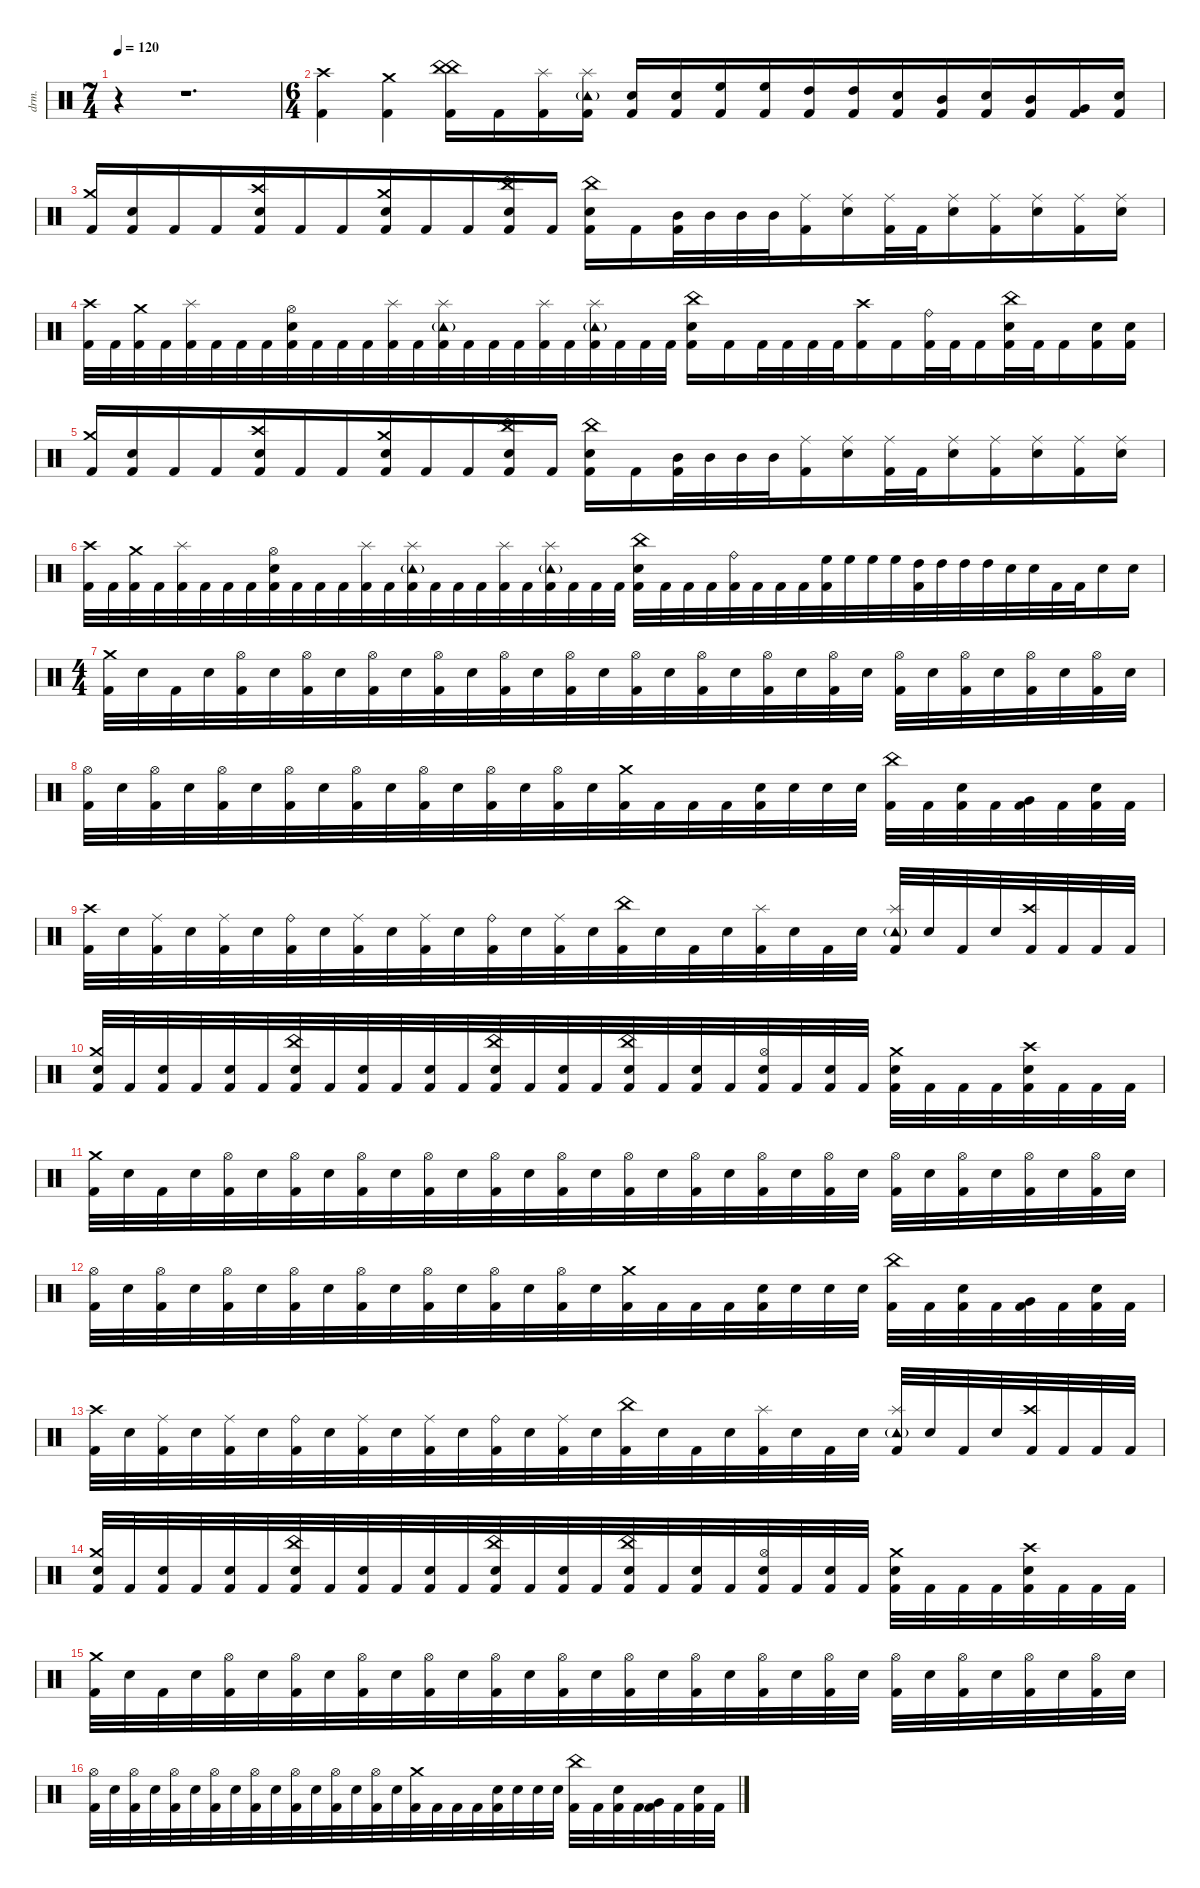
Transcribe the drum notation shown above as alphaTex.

\defaultSystemsLayout 4
\hideDynamics
\bracketExtendMode nobrackets
\otherSystemsTrackNameOrientation horizontal
\track ("Percussion" "drm.") {instrument percussion}
\staff {score}
\articulation defaults
\ts (7 4)
\beaming (8 2 2 2 8)
\tempo 120
\clef neutral
\ks c
r.4{dy fff beam Down} r.1{d beam Down} |
\ts (6 4)
\beaming (8 6 6)
("Kick (hit) 2" "Crash high (hit)").4{beam Down} ("Kick (hit) 2" "Crash medium (hit)").4{beam Down} ("Kick (hit) 2" "China (hit)" "China (hit)").16{beam Down} "Kick (hit) 2".16{beam Down} ("Kick (hit) 2" "Splash (hit)").16{beam Down} ("Kick (hit) 2" "Tambourine (hit)"{g} "Splash (hit)").16{beam Down} ("Kick (hit) 2" "Snare (hit) 2").16{beam Up} ("Kick (hit) 2" "Snare (hit) 2").16{beam Up} ("Kick (hit) 2" "High Floor Tom (hit)").16{beam Up} ("Kick (hit) 2" "High Floor Tom (hit)").16{beam Up} ("Kick (hit) 2" "High Tom (hit)").16{beam Up} ("Kick (hit) 2" "High Tom (hit)").16{beam Up} ("Kick (hit) 2" "Snare (hit) 2").16{beam Up} ("Kick (hit) 2" "Mid Tom (hit)").16{beam Up} ("Kick (hit) 2" "Snare (hit) 2").16{beam Up} ("Kick (hit) 2" "Mid Tom (hit)").16{beam Up} ("Kick (hit) 2" "Very Low Tom (hit)").16{beam Up} ("Kick (hit) 2" "Snare (hit) 2").16{beam Up} |
("Kick (hit) 2" "Crash medium (hit)").16{beam Up} ("Kick (hit) 2" "Snare (hit) 2").16{beam Up} "Kick (hit) 2".16{beam Up} "Kick (hit) 2".16{beam Up} ("Kick (hit) 2" "Snare (hit) 2" "Crash high (hit)").16{beam Up} "Kick (hit) 2".16{beam Up} "Kick (hit) 2".16{beam Up} ("Kick (hit) 2" "Snare (hit) 2" "Crash medium (hit)").16{beam Up} "Kick (hit) 2".16{beam Up} "Kick (hit) 2".16{beam Up} ("Kick (hit) 2" "Snare (hit) 2" "China (hit)").16{beam Up} "Kick (hit) 2".16{beam Up} ("Kick (hit) 2" "Snare (hit) 2" "China (hit)").16{beam Down} "Kick (hit) 2".16{beam Down} ("Kick (hit) 2" "Mid Tom (hit)").32{beam Down} "Mid Tom (hit)".32{beam Down} "Mid Tom (hit)".32{beam Down} "Mid Tom (hit)".32{beam Down} ("Kick (hit) 2" "Ride (middle)").16{beam Down} ("Snare (hit) 2" "Ride (middle)").16{beam Down} ("Kick (hit) 2" "Ride (middle)").32{beam Down} "Kick (hit) 2".32{beam Down} ("Snare (hit) 2" "Ride (middle)").16{beam Down} ("Kick (hit) 2" "Ride (middle)").16{beam Down} ("Snare (hit) 2" "Ride (middle)").16{beam Down} ("Kick (hit) 2" "Ride (middle)").16{beam Down} ("Snare (hit) 2" "Ride (middle)").16{beam Down} |
("Kick (hit) 2" "Crash high (hit)").32{beam Down} "Kick (hit) 2".32{beam Down} ("Kick (hit) 2" "Crash medium (hit)").32{beam Down} "Kick (hit) 2".32{beam Down} ("Kick (hit) 2" "Splash (hit)").32{beam Down} "Kick (hit) 2".32{beam Down} "Kick (hit) 2".32{beam Down} "Kick (hit) 2".32{beam Down} ("Kick (hit) 2" "Snare (hit) 2" "Hi-Hat (open)").32{beam Down} "Kick (hit) 2".32{beam Down} "Kick (hit) 2".32{beam Down} "Kick (hit) 2".32{beam Down} ("Kick (hit) 2" "Splash (hit)").32{beam Down} "Kick (hit) 2".32{beam Down} ("Kick (hit) 2" "Tambourine (hit)"{g} "Splash (hit)").32{beam Down} "Kick (hit) 2".32{beam Down} "Kick (hit) 2".32{beam Down} "Kick (hit) 2".32{beam Down} ("Kick (hit) 2" "Splash (hit)").32{beam Down} "Kick (hit) 2".32{beam Down} ("Kick (hit) 2" "Tambourine (hit)"{g} "Splash (hit)").32{beam Down} "Kick (hit) 2".32{beam Down} "Kick (hit) 2".32{beam Down} "Kick (hit) 2".32{beam Down} ("Kick (hit) 2" "Snare (hit) 2" "China (hit)").16{beam Down} "Kick (hit) 2".16{beam Down} "Kick (hit) 2".32{beam Down} "Kick (hit) 2".32{beam Down} "Kick (hit) 2".32{beam Down} "Kick (hit) 2".32{beam Down} ("Kick (hit) 2" "Crash high (hit)").16{beam Down} "Kick (hit) 2".16{beam Down} ("Kick (hit) 2" "Ride (bell)").32{beam Down} "Kick (hit) 2".32{beam Down} "Kick (hit) 2".16{beam Down} ("Kick (hit) 2" "Snare (hit) 2" "China (hit)").32{beam Down} "Kick (hit) 2".32{beam Down} "Kick (hit) 2".16{beam Down} ("Kick (hit) 2" "Snare (hit) 2").16{beam Down} ("Kick (hit) 2" "Snare (hit) 2").16{beam Down} |
("Kick (hit) 2" "Crash medium (hit)").16{beam Up} ("Kick (hit) 2" "Snare (hit) 2").16{beam Up} "Kick (hit) 2".16{beam Up} "Kick (hit) 2".16{beam Up} ("Kick (hit) 2" "Snare (hit) 2" "Crash high (hit)").16{beam Up} "Kick (hit) 2".16{beam Up} "Kick (hit) 2".16{beam Up} ("Kick (hit) 2" "Snare (hit) 2" "Crash medium (hit)").16{beam Up} "Kick (hit) 2".16{beam Up} "Kick (hit) 2".16{beam Up} ("Kick (hit) 2" "Snare (hit) 2" "China (hit)").16{beam Up} "Kick (hit) 2".16{beam Up} ("Kick (hit) 2" "Snare (hit) 2" "China (hit)").16{beam Down} "Kick (hit) 2".16{beam Down} ("Kick (hit) 2" "Mid Tom (hit)").32{beam Down} "Mid Tom (hit)".32{beam Down} "Mid Tom (hit)".32{beam Down} "Mid Tom (hit)".32{beam Down} ("Kick (hit) 2" "Ride (middle)").16{beam Down} ("Snare (hit) 2" "Ride (middle)").16{beam Down} ("Kick (hit) 2" "Ride (middle)").32{beam Down} "Kick (hit) 2".32{beam Down} ("Snare (hit) 2" "Ride (middle)").16{beam Down} ("Kick (hit) 2" "Ride (middle)").16{beam Down} ("Snare (hit) 2" "Ride (middle)").16{beam Down} ("Kick (hit) 2" "Ride (middle)").16{beam Down} ("Snare (hit) 2" "Ride (middle)").16{beam Down} |
("Kick (hit) 2" "Crash high (hit)").32{beam Down} "Kick (hit) 2".32{beam Down} ("Kick (hit) 2" "Crash medium (hit)").32{beam Down} "Kick (hit) 2".32{beam Down} ("Kick (hit) 2" "Splash (hit)").32{beam Down} "Kick (hit) 2".32{beam Down} "Kick (hit) 2".32{beam Down} "Kick (hit) 2".32{beam Down} ("Kick (hit) 2" "Snare (hit) 2" "Hi-Hat (open)").32{beam Down} "Kick (hit) 2".32{beam Down} "Kick (hit) 2".32{beam Down} "Kick (hit) 2".32{beam Down} ("Kick (hit) 2" "Splash (hit)").32{beam Down} "Kick (hit) 2".32{beam Down} ("Kick (hit) 2" "Tambourine (hit)"{g} "Splash (hit)").32{beam Down} "Kick (hit) 2".32{beam Down} "Kick (hit) 2".32{beam Down} "Kick (hit) 2".32{beam Down} ("Kick (hit) 2" "Splash (hit)").32{beam Down} "Kick (hit) 2".32{beam Down} ("Kick (hit) 2" "Tambourine (hit)"{g} "Splash (hit)").32{beam Down} "Kick (hit) 2".32{beam Down} "Kick (hit) 2".32{beam Down} "Kick (hit) 2".32{beam Down} ("Kick (hit) 2" "Snare (hit) 2" "China (hit)").32{beam Down} "Kick (hit) 2".32{beam Down} "Kick (hit) 2".32{beam Down} "Kick (hit) 2".32{beam Down} ("Kick (hit) 2" "Ride (bell)").32{beam Down} "Kick (hit) 2".32{beam Down} "Kick (hit) 2".32{beam Down} "Kick (hit) 2".32{beam Down} ("Kick (hit) 2" "High Floor Tom (hit)").32{beam Down} "High Floor Tom (hit)".32{beam Down} "High Floor Tom (hit)".32{beam Down} "High Floor Tom (hit)".32{beam Down} ("Kick (hit) 2" "High Tom (hit)").32{beam Down} "High Tom (hit)".32{beam Down} "High Tom (hit)".32{beam Down} "High Tom (hit)".32{beam Down} "Snare (hit) 2".32{beam Down} "Snare (hit) 2".32{beam Down} "Kick (hit) 2".32{beam Down} "Kick (hit) 2".32{beam Down} "Snare (hit) 2".16{beam Down} "Snare (hit) 2".16{beam Down} |
\ts (4 4)
\beaming (8 6 6)
("Kick (hit) 2" "Crash medium (hit)").32{beam Down} "Snare (hit) 2".32{beam Down} "Kick (hit) 2".32{beam Down} "Snare (hit) 2".32{beam Down} ("Kick (hit) 2" "Hi-Hat (open)").32{beam Down} "Snare (hit) 2".32{beam Down} ("Kick (hit) 2" "Hi-Hat (open)").32{beam Down} "Snare (hit) 2".32{beam Down} ("Kick (hit) 2" "Hi-Hat (open)").32{beam Down} "Snare (hit) 2".32{beam Down} ("Kick (hit) 2" "Hi-Hat (open)").32{beam Down} "Snare (hit) 2".32{beam Down} ("Kick (hit) 2" "Hi-Hat (open)").32{beam Down} "Snare (hit) 2".32{beam Down} ("Kick (hit) 2" "Hi-Hat (open)").32{beam Down} "Snare (hit) 2".32{beam Down} ("Kick (hit) 2" "Hi-Hat (open)").32{beam Down} "Snare (hit) 2".32{beam Down} ("Kick (hit) 2" "Hi-Hat (open)").32{beam Down} "Snare (hit) 2".32{beam Down} ("Kick (hit) 2" "Hi-Hat (open)").32{beam Down} "Snare (hit) 2".32{beam Down} ("Kick (hit) 2" "Hi-Hat (open)").32{beam Down} "Snare (hit) 2".32{beam Down} ("Kick (hit) 2" "Hi-Hat (open)").32{beam Down} "Snare (hit) 2".32{beam Down} ("Kick (hit) 2" "Hi-Hat (open)").32{beam Down} "Snare (hit) 2".32{beam Down} ("Kick (hit) 2" "Hi-Hat (open)").32{beam Down} "Snare (hit) 2".32{beam Down} ("Kick (hit) 2" "Hi-Hat (open)").32{beam Down} "Snare (hit) 2".32{beam Down} |
("Kick (hit) 2" "Hi-Hat (open)").32{beam Down} "Snare (hit) 2".32{beam Down} ("Kick (hit) 2" "Hi-Hat (open)").32{beam Down} "Snare (hit) 2".32{beam Down} ("Kick (hit) 2" "Hi-Hat (open)").32{beam Down} "Snare (hit) 2".32{beam Down} ("Kick (hit) 2" "Hi-Hat (open)").32{beam Down} "Snare (hit) 2".32{beam Down} ("Kick (hit) 2" "Hi-Hat (open)").32{beam Down} "Snare (hit) 2".32{beam Down} ("Kick (hit) 2" "Hi-Hat (open)").32{beam Down} "Snare (hit) 2".32{beam Down} ("Kick (hit) 2" "Hi-Hat (open)").32{beam Down} "Snare (hit) 2".32{beam Down} ("Kick (hit) 2" "Hi-Hat (open)").32{beam Down} "Snare (hit) 2".32{beam Down} ("Kick (hit) 2" "Crash medium (hit)").32{beam Down} "Kick (hit) 2".32{beam Down} "Kick (hit) 2".32{beam Down} "Kick (hit) 2".32{beam Down} ("Kick (hit) 2" "Snare (hit) 2").32{beam Down} "Snare (hit) 2".32{beam Down} "Snare (hit) 2".32{beam Down} "Snare (hit) 2".32{beam Down} ("Kick (hit) 2" "China (hit)").32{beam Down} "Kick (hit) 2".32{beam Down} ("Kick (hit) 2" "Snare (hit) 2").32{beam Down} "Kick (hit) 2".32{beam Down} ("Kick (hit) 2" "Very Low Tom (hit)").32{beam Down} "Kick (hit) 2".32{beam Down} ("Kick (hit) 2" "Snare (hit) 2").32{beam Down} "Kick (hit) 2".32{beam Down} |
("Kick (hit) 2" "Crash high (hit)").32{beam Down} "Snare (hit) 2".32{beam Down} ("Kick (hit) 2" "Ride (middle)").32{beam Down} "Snare (hit) 2".32{beam Down} ("Kick (hit) 2" "Ride (middle)").32{beam Down} "Snare (hit) 2".32{beam Down} ("Kick (hit) 2" "Ride (bell)").32{beam Down} "Snare (hit) 2".32{beam Down} ("Kick (hit) 2" "Ride (middle)").32{beam Down} "Snare (hit) 2".32{beam Down} ("Kick (hit) 2" "Ride (middle)").32{beam Down} "Snare (hit) 2".32{beam Down} ("Kick (hit) 2" "Ride (bell)").32{beam Down} "Snare (hit) 2".32{beam Down} ("Kick (hit) 2" "Ride (middle)").32{beam Down} "Snare (hit) 2".32{beam Down} ("Kick (hit) 2" "China (hit)").32{beam Down} "Snare (hit) 2".32{beam Down} "Kick (hit) 2".32{beam Down} "Snare (hit) 2".32{beam Down} ("Kick (hit) 2" "Splash (hit)").32{beam Down} "Snare (hit) 2".32{beam Down} "Kick (hit) 2".32{beam Down} "Snare (hit) 2".32{beam Down} ("Kick (hit) 2" "Tambourine (hit)"{g} "Splash (hit)").32{beam Up} "Snare (hit) 2".32{beam Up} "Kick (hit) 2".32{beam Up} "Snare (hit) 2".32{beam Up} ("Kick (hit) 2" "Crash high (hit)").32{beam Up} "Kick (hit) 2".32{beam Up} "Kick (hit) 2".32{beam Up} "Kick (hit) 2".32{beam Up} |
("Kick (hit) 2" "Snare (hit) 2" "Crash medium (hit)").32{beam Up} "Kick (hit) 2".32{beam Up} ("Kick (hit) 2" "Snare (hit) 2").32{beam Up} "Kick (hit) 2".32{beam Up} ("Kick (hit) 2" "Snare (hit) 2").32{beam Up} "Kick (hit) 2".32{beam Up} ("Kick (hit) 2" "Snare (hit) 2" "China (hit)").32{beam Up} "Kick (hit) 2".32{beam Up} ("Kick (hit) 2" "Snare (hit) 2").32{beam Up} "Kick (hit) 2".32{beam Up} ("Kick (hit) 2" "Snare (hit) 2").32{beam Up} "Kick (hit) 2".32{beam Up} ("Kick (hit) 2" "Snare (hit) 2" "China (hit)").32{beam Up} "Kick (hit) 2".32{beam Up} ("Kick (hit) 2" "Snare (hit) 2").32{beam Up} "Kick (hit) 2".32{beam Up} ("Kick (hit) 2" "Snare (hit) 2" "China (hit)").32{beam Up} "Kick (hit) 2".32{beam Up} ("Kick (hit) 2" "Snare (hit) 2").32{beam Up} "Kick (hit) 2".32{beam Up} ("Kick (hit) 2" "Snare (hit) 2" "Hi-Hat (open)").32{beam Up} "Kick (hit) 2".32{beam Up} ("Kick (hit) 2" "Snare (hit) 2").32{beam Up} "Kick (hit) 2".32{beam Up} ("Kick (hit) 2" "Snare (hit) 2" "Crash medium (hit)").32{beam Down} "Kick (hit) 2".32{beam Down} "Kick (hit) 2".32{beam Down} "Kick (hit) 2".32{beam Down} ("Kick (hit) 2" "Snare (hit) 2" "Crash high (hit)").32{beam Down} "Kick (hit) 2".32{beam Down} "Kick (hit) 2".32{beam Down} "Kick (hit) 2".32{beam Down} |
("Kick (hit) 2" "Crash medium (hit)").32{beam Down} "Snare (hit) 2".32{beam Down} "Kick (hit) 2".32{beam Down} "Snare (hit) 2".32{beam Down} ("Kick (hit) 2" "Hi-Hat (open)").32{beam Down} "Snare (hit) 2".32{beam Down} ("Kick (hit) 2" "Hi-Hat (open)").32{beam Down} "Snare (hit) 2".32{beam Down} ("Kick (hit) 2" "Hi-Hat (open)").32{beam Down} "Snare (hit) 2".32{beam Down} ("Kick (hit) 2" "Hi-Hat (open)").32{beam Down} "Snare (hit) 2".32{beam Down} ("Kick (hit) 2" "Hi-Hat (open)").32{beam Down} "Snare (hit) 2".32{beam Down} ("Kick (hit) 2" "Hi-Hat (open)").32{beam Down} "Snare (hit) 2".32{beam Down} ("Kick (hit) 2" "Hi-Hat (open)").32{beam Down} "Snare (hit) 2".32{beam Down} ("Kick (hit) 2" "Hi-Hat (open)").32{beam Down} "Snare (hit) 2".32{beam Down} ("Kick (hit) 2" "Hi-Hat (open)").32{beam Down} "Snare (hit) 2".32{beam Down} ("Kick (hit) 2" "Hi-Hat (open)").32{beam Down} "Snare (hit) 2".32{beam Down} ("Kick (hit) 2" "Hi-Hat (open)").32{beam Down} "Snare (hit) 2".32{beam Down} ("Kick (hit) 2" "Hi-Hat (open)").32{beam Down} "Snare (hit) 2".32{beam Down} ("Kick (hit) 2" "Hi-Hat (open)").32{beam Down} "Snare (hit) 2".32{beam Down} ("Kick (hit) 2" "Hi-Hat (open)").32{beam Down} "Snare (hit) 2".32{beam Down} |
("Kick (hit) 2" "Hi-Hat (open)").32{beam Down} "Snare (hit) 2".32{beam Down} ("Kick (hit) 2" "Hi-Hat (open)").32{beam Down} "Snare (hit) 2".32{beam Down} ("Kick (hit) 2" "Hi-Hat (open)").32{beam Down} "Snare (hit) 2".32{beam Down} ("Kick (hit) 2" "Hi-Hat (open)").32{beam Down} "Snare (hit) 2".32{beam Down} ("Kick (hit) 2" "Hi-Hat (open)").32{beam Down} "Snare (hit) 2".32{beam Down} ("Kick (hit) 2" "Hi-Hat (open)").32{beam Down} "Snare (hit) 2".32{beam Down} ("Kick (hit) 2" "Hi-Hat (open)").32{beam Down} "Snare (hit) 2".32{beam Down} ("Kick (hit) 2" "Hi-Hat (open)").32{beam Down} "Snare (hit) 2".32{beam Down} ("Kick (hit) 2" "Crash medium (hit)").32{beam Down} "Kick (hit) 2".32{beam Down} "Kick (hit) 2".32{beam Down} "Kick (hit) 2".32{beam Down} ("Kick (hit) 2" "Snare (hit) 2").32{beam Down} "Snare (hit) 2".32{beam Down} "Snare (hit) 2".32{beam Down} "Snare (hit) 2".32{beam Down} ("Kick (hit) 2" "China (hit)").32{beam Down} "Kick (hit) 2".32{beam Down} ("Kick (hit) 2" "Snare (hit) 2").32{beam Down} "Kick (hit) 2".32{beam Down} ("Kick (hit) 2" "Very Low Tom (hit)").32{beam Down} "Kick (hit) 2".32{beam Down} ("Kick (hit) 2" "Snare (hit) 2").32{beam Down} "Kick (hit) 2".32{beam Down} |
("Kick (hit) 2" "Crash high (hit)").32{beam Down} "Snare (hit) 2".32{beam Down} ("Kick (hit) 2" "Ride (middle)").32{beam Down} "Snare (hit) 2".32{beam Down} ("Kick (hit) 2" "Ride (middle)").32{beam Down} "Snare (hit) 2".32{beam Down} ("Kick (hit) 2" "Ride (bell)").32{beam Down} "Snare (hit) 2".32{beam Down} ("Kick (hit) 2" "Ride (middle)").32{beam Down} "Snare (hit) 2".32{beam Down} ("Kick (hit) 2" "Ride (middle)").32{beam Down} "Snare (hit) 2".32{beam Down} ("Kick (hit) 2" "Ride (bell)").32{beam Down} "Snare (hit) 2".32{beam Down} ("Kick (hit) 2" "Ride (middle)").32{beam Down} "Snare (hit) 2".32{beam Down} ("Kick (hit) 2" "China (hit)").32{beam Down} "Snare (hit) 2".32{beam Down} "Kick (hit) 2".32{beam Down} "Snare (hit) 2".32{beam Down} ("Kick (hit) 2" "Splash (hit)").32{beam Down} "Snare (hit) 2".32{beam Down} "Kick (hit) 2".32{beam Down} "Snare (hit) 2".32{beam Down} ("Kick (hit) 2" "Tambourine (hit)"{g} "Splash (hit)").32{beam Up} "Snare (hit) 2".32{beam Up} "Kick (hit) 2".32{beam Up} "Snare (hit) 2".32{beam Up} ("Kick (hit) 2" "Crash high (hit)").32{beam Up} "Kick (hit) 2".32{beam Up} "Kick (hit) 2".32{beam Up} "Kick (hit) 2".32{beam Up} |
("Kick (hit) 2" "Snare (hit) 2" "Crash medium (hit)").32{beam Up} "Kick (hit) 2".32{beam Up} ("Kick (hit) 2" "Snare (hit) 2").32{beam Up} "Kick (hit) 2".32{beam Up} ("Kick (hit) 2" "Snare (hit) 2").32{beam Up} "Kick (hit) 2".32{beam Up} ("Kick (hit) 2" "Snare (hit) 2" "China (hit)").32{beam Up} "Kick (hit) 2".32{beam Up} ("Kick (hit) 2" "Snare (hit) 2").32{beam Up} "Kick (hit) 2".32{beam Up} ("Kick (hit) 2" "Snare (hit) 2").32{beam Up} "Kick (hit) 2".32{beam Up} ("Kick (hit) 2" "Snare (hit) 2" "China (hit)").32{beam Up} "Kick (hit) 2".32{beam Up} ("Kick (hit) 2" "Snare (hit) 2").32{beam Up} "Kick (hit) 2".32{beam Up} ("Kick (hit) 2" "Snare (hit) 2" "China (hit)").32{beam Up} "Kick (hit) 2".32{beam Up} ("Kick (hit) 2" "Snare (hit) 2").32{beam Up} "Kick (hit) 2".32{beam Up} ("Kick (hit) 2" "Snare (hit) 2" "Hi-Hat (open)").32{beam Up} "Kick (hit) 2".32{beam Up} ("Kick (hit) 2" "Snare (hit) 2").32{beam Up} "Kick (hit) 2".32{beam Up} ("Kick (hit) 2" "Snare (hit) 2" "Crash medium (hit)").32{beam Down} "Kick (hit) 2".32{beam Down} "Kick (hit) 2".32{beam Down} "Kick (hit) 2".32{beam Down} ("Kick (hit) 2" "Snare (hit) 2" "Crash high (hit)").32{beam Down} "Kick (hit) 2".32{beam Down} "Kick (hit) 2".32{beam Down} "Kick (hit) 2".32{beam Down} |
("Kick (hit) 2" "Crash medium (hit)").32{beam Down} "Snare (hit) 2".32{beam Down} "Kick (hit) 2".32{beam Down} "Snare (hit) 2".32{beam Down} ("Kick (hit) 2" "Hi-Hat (open)").32{beam Down} "Snare (hit) 2".32{beam Down} ("Kick (hit) 2" "Hi-Hat (open)").32{beam Down} "Snare (hit) 2".32{beam Down} ("Kick (hit) 2" "Hi-Hat (open)").32{beam Down} "Snare (hit) 2".32{beam Down} ("Kick (hit) 2" "Hi-Hat (open)").32{beam Down} "Snare (hit) 2".32{beam Down} ("Kick (hit) 2" "Hi-Hat (open)").32{beam Down} "Snare (hit) 2".32{beam Down} ("Kick (hit) 2" "Hi-Hat (open)").32{beam Down} "Snare (hit) 2".32{beam Down} ("Kick (hit) 2" "Hi-Hat (open)").32{beam Down} "Snare (hit) 2".32{beam Down} ("Kick (hit) 2" "Hi-Hat (open)").32{beam Down} "Snare (hit) 2".32{beam Down} ("Kick (hit) 2" "Hi-Hat (open)").32{beam Down} "Snare (hit) 2".32{beam Down} ("Kick (hit) 2" "Hi-Hat (open)").32{beam Down} "Snare (hit) 2".32{beam Down} ("Kick (hit) 2" "Hi-Hat (open)").32{beam Down} "Snare (hit) 2".32{beam Down} ("Kick (hit) 2" "Hi-Hat (open)").32{beam Down} "Snare (hit) 2".32{beam Down} ("Kick (hit) 2" "Hi-Hat (open)").32{beam Down} "Snare (hit) 2".32{beam Down} ("Kick (hit) 2" "Hi-Hat (open)").32{beam Down} "Snare (hit) 2".32{beam Down} |
("Kick (hit) 2" "Hi-Hat (open)").32{beam Down} "Snare (hit) 2".32{beam Down} ("Kick (hit) 2" "Hi-Hat (open)").32{beam Down} "Snare (hit) 2".32{beam Down} ("Kick (hit) 2" "Hi-Hat (open)").32{beam Down} "Snare (hit) 2".32{beam Down} ("Kick (hit) 2" "Hi-Hat (open)").32{beam Down} "Snare (hit) 2".32{beam Down} ("Kick (hit) 2" "Hi-Hat (open)").32{beam Down} "Snare (hit) 2".32{beam Down} ("Kick (hit) 2" "Hi-Hat (open)").32{beam Down} "Snare (hit) 2".32{beam Down} ("Kick (hit) 2" "Hi-Hat (open)").32{beam Down} "Snare (hit) 2".32{beam Down} ("Kick (hit) 2" "Hi-Hat (open)").32{beam Down} "Snare (hit) 2".32{beam Down} ("Kick (hit) 2" "Crash medium (hit)").32{beam Down} "Kick (hit) 2".32{beam Down} "Kick (hit) 2".32{beam Down} "Kick (hit) 2".32{beam Down} ("Kick (hit) 2" "Snare (hit) 2").32{beam Down} "Snare (hit) 2".32{beam Down} "Snare (hit) 2".32{beam Down} "Snare (hit) 2".32{beam Down} ("Kick (hit) 2" "China (hit)").32{beam Down} "Kick (hit) 2".32{beam Down} ("Kick (hit) 2" "Snare (hit) 2").32{beam Down} "Kick (hit) 2".32{beam Down} ("Kick (hit) 2" "Very Low Tom (hit)").32{beam Down} "Kick (hit) 2".32{beam Down} ("Kick (hit) 2" "Snare (hit) 2").32{beam Down} "Kick (hit) 2".32{beam Down}
